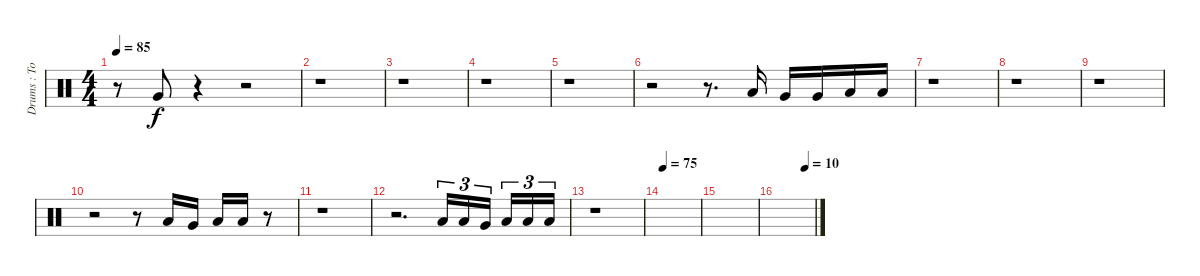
\track ("Drums : Toms" "Drums : To") {instrument percussion}
\staff {score}
\articulation defaults
\ts (4 4)
\tempo 85
\clef neutral
\ks c
r.8{dy f} "Very Low Tom (hit)".8 r.4 r.2 |
r.1 |
r.1 |
r.1 |
r.1 |
r.2 r.8{d} "Low Tom (hit)".16 "Very Low Tom (hit)".16 "Very Low Tom (hit)".16 "Low Floor Tom (hit)".16 "Low Floor Tom (hit)".16 |
r.1 |
r.1 |
r.1 |
r.2 r.8 "Low Tom (hit)".16 "Very Low Tom (hit)".16 "Low Floor Tom (hit)".16 "Low Floor Tom (hit)".16 r.8 |
r.1 |
r.2{d} "Low Tom (hit)".16{tu (3 2)} "Low Tom (hit)".16{tu (3 2)} "Very Low Tom (hit)".16{tu (3 2)} "Low Floor Tom (hit)".16{tu (3 2)} "Low Floor Tom (hit)".16{tu (3 2)} "Low Floor Tom (hit)".16{tu (3 2)} |
r.1 |
\tempo 75
|
|
\tempo (10 0.75)
